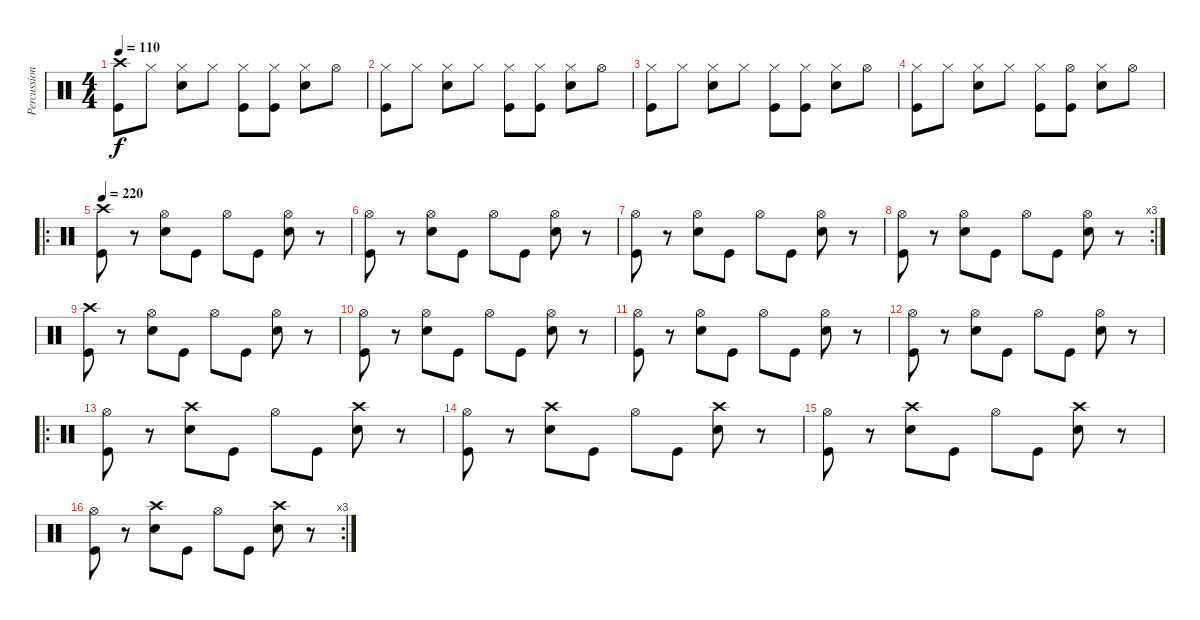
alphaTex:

\track ("Percussion" "Percussion") {instrument percussion}
\staff {score}
\articulation defaults
\ts (4 4)
\tempo 110
\clef neutral
\ks c
("Kick (hit)" "Crash high (hit)").8{dy f} "Hi-Hat (closed)".8 ("Snare (hit) 2" "Hi-Hat (closed)").8 "Hi-Hat (closed)".8 ("Kick (hit)" "Hi-Hat (closed)").8 ("Kick (hit)" "Hi-Hat (closed)").8 ("Snare (hit) 2" "Hi-Hat (closed)").8 "Hi-Hat (open)".8 |
("Kick (hit)" "Hi-Hat (closed)").8 "Hi-Hat (closed)".8 ("Snare (hit) 2" "Hi-Hat (closed)").8 "Hi-Hat (closed)".8 ("Kick (hit)" "Hi-Hat (closed)").8 ("Kick (hit)" "Hi-Hat (closed)").8 ("Snare (hit) 2" "Hi-Hat (closed)").8 "Hi-Hat (open)".8 |
("Kick (hit)" "Hi-Hat (closed)").8 "Hi-Hat (closed)".8 ("Snare (hit) 2" "Hi-Hat (closed)").8 "Hi-Hat (closed)".8 ("Kick (hit)" "Hi-Hat (closed)").8 ("Kick (hit)" "Hi-Hat (closed)").8 ("Snare (hit) 2" "Hi-Hat (closed)").8 "Hi-Hat (open)".8 |
("Kick (hit)" "Hi-Hat (closed)").8 "Hi-Hat (closed)".8 ("Snare (hit) 2" "Hi-Hat (closed)").8 "Hi-Hat (closed)".8 ("Kick (hit)" "Hi-Hat (closed)").8 ("Kick (hit)" "Hi-Hat (open)").8 ("Snare (hit) 2" "Hi-Hat (closed)").8 "Hi-Hat (open)".8 |
\ro
\tempo 220
("Crash high (hit)" "Kick (hit)").8 r.8 ("Snare (hit) 2" "Hi-Hat (open)").8 "Kick (hit)".8 "Hi-Hat (open)".8 "Kick (hit)".8 ("Snare (hit) 2" "Hi-Hat (open)").8 r.8 |
("Hi-Hat (open)" "Kick (hit)").8 r.8 ("Snare (hit) 2" "Hi-Hat (open)").8 "Kick (hit)".8 "Hi-Hat (open)".8 "Kick (hit)".8 ("Snare (hit) 2" "Hi-Hat (open)").8 r.8 |
("Hi-Hat (open)" "Kick (hit)").8 r.8 ("Snare (hit) 2" "Hi-Hat (open)").8 "Kick (hit)".8 "Hi-Hat (open)".8 "Kick (hit)".8 ("Snare (hit) 2" "Hi-Hat (open)").8 r.8 |
\rc 3
("Hi-Hat (open)" "Kick (hit)").8 r.8 ("Snare (hit) 2" "Hi-Hat (open)").8 "Kick (hit)".8 "Hi-Hat (open)".8 "Kick (hit)".8 ("Snare (hit) 2" "Hi-Hat (open)").8 r.8 |
("Crash high (hit)" "Kick (hit)").8 r.8 ("Snare (hit) 2" "Hi-Hat (open)").8 "Kick (hit)".8 "Hi-Hat (open)".8 "Kick (hit)".8 ("Snare (hit) 2" "Hi-Hat (open)").8 r.8 |
("Hi-Hat (open)" "Kick (hit)").8 r.8 ("Snare (hit) 2" "Hi-Hat (open)").8 "Kick (hit)".8 "Hi-Hat (open)".8 "Kick (hit)".8 ("Snare (hit) 2" "Hi-Hat (open)").8 r.8 |
("Hi-Hat (open)" "Kick (hit)").8 r.8 ("Snare (hit) 2" "Hi-Hat (open)").8 "Kick (hit)".8 "Hi-Hat (open)".8 "Kick (hit)".8 ("Snare (hit) 2" "Hi-Hat (open)").8 r.8 |
("Hi-Hat (open)" "Kick (hit)").8 r.8 ("Snare (hit) 2" "Hi-Hat (open)").8 "Kick (hit)".8 "Hi-Hat (open)".8 "Kick (hit)".8 ("Snare (hit) 2" "Hi-Hat (open)").8 r.8 |
\ro
("Hi-Hat (open)" "Kick (hit)").8 r.8 ("Snare (hit) 2" "Crash high (hit)").8 "Kick (hit)".8 "Hi-Hat (open)".8 "Kick (hit)".8 ("Snare (hit) 2" "Crash high (hit)").8 r.8 |
("Hi-Hat (open)" "Kick (hit)").8 r.8 ("Snare (hit) 2" "Crash high (hit)").8 "Kick (hit)".8 "Hi-Hat (open)".8 "Kick (hit)".8 ("Snare (hit) 2" "Crash high (hit)").8 r.8 |
("Hi-Hat (open)" "Kick (hit)").8 r.8 ("Snare (hit) 2" "Crash high (hit)").8 "Kick (hit)".8 "Hi-Hat (open)".8 "Kick (hit)".8 ("Snare (hit) 2" "Crash high (hit)").8 r.8 |
\rc 3
("Kick (hit)" "Hi-Hat (open)").8 r.8 ("Snare (hit) 2" "Crash high (hit)").8 "Kick (hit)".8 "Hi-Hat (open)".8 "Kick (hit)".8 ("Snare (hit) 2" "Crash high (hit)").8 r.8
